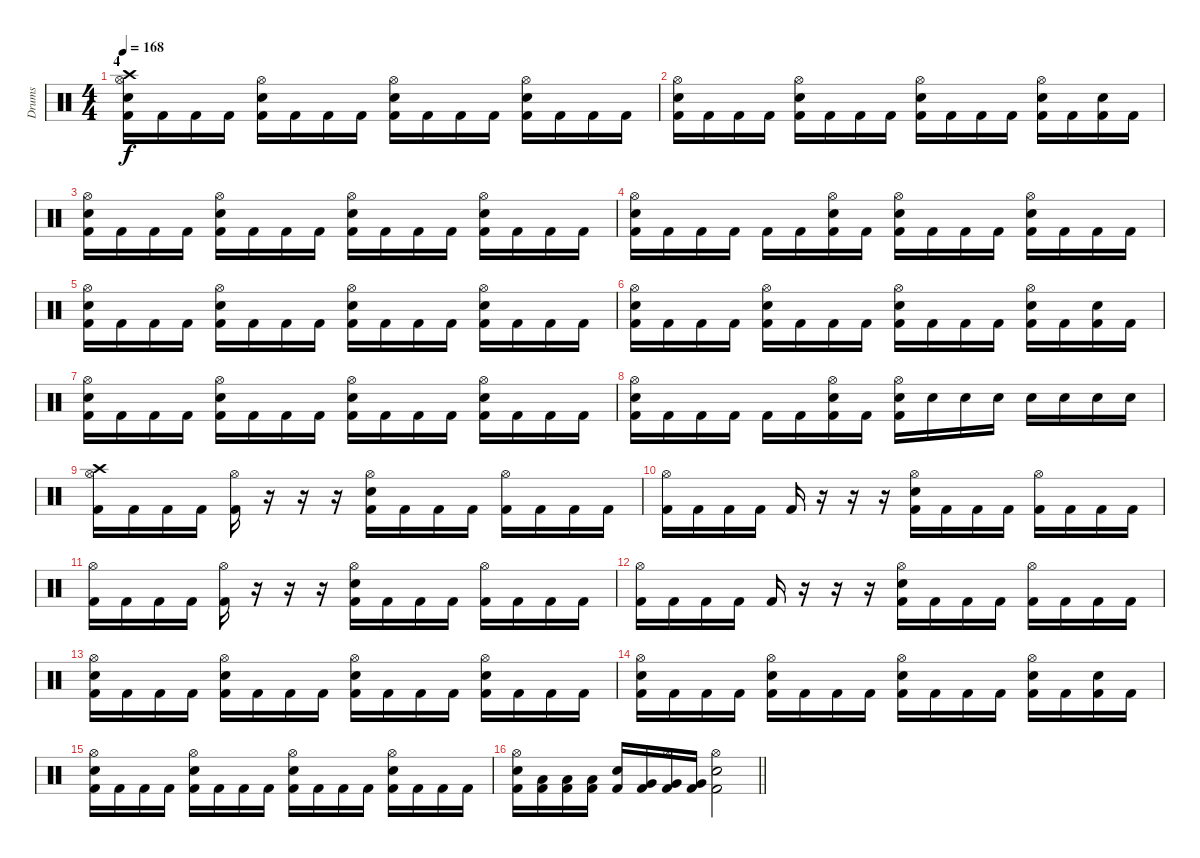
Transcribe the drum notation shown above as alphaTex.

\track ("Drums" "Drums") {instrument percussion}
\staff {score}
\articulation defaults
\ts (4 4)
\section ("" "4")
\tempo 168
\clef neutral
\ks c
("Crash high (hit)" "Electric Snare (hit)" "Kick (hit) 2" "Hi-Hat (open)").16{dy f} "Kick (hit) 2".16 "Kick (hit) 2".16 "Kick (hit) 2".16 ("Electric Snare (hit)" "Kick (hit) 2" "Hi-Hat (open)").16 "Kick (hit) 2".16 "Kick (hit) 2".16 "Kick (hit) 2".16 ("Electric Snare (hit)" "Kick (hit) 2" "Hi-Hat (open)").16 "Kick (hit) 2".16 "Kick (hit) 2".16 "Kick (hit) 2".16 ("Electric Snare (hit)" "Kick (hit) 2" "Hi-Hat (open)").16 "Kick (hit) 2".16 "Kick (hit) 2".16 "Kick (hit) 2".16 |
("Electric Snare (hit)" "Kick (hit) 2" "Hi-Hat (open)").16 "Kick (hit) 2".16 "Kick (hit) 2".16 "Kick (hit) 2".16 ("Electric Snare (hit)" "Kick (hit) 2" "Hi-Hat (open)").16 "Kick (hit) 2".16 "Kick (hit) 2".16 "Kick (hit) 2".16 ("Electric Snare (hit)" "Kick (hit) 2" "Hi-Hat (open)").16 "Kick (hit) 2".16 "Kick (hit) 2".16 "Kick (hit) 2".16 ("Electric Snare (hit)" "Kick (hit) 2" "Hi-Hat (open)").16 "Kick (hit) 2".16 ("Electric Snare (hit)" "Kick (hit) 2").16 "Kick (hit) 2".16 |
("Electric Snare (hit)" "Kick (hit) 2" "Hi-Hat (open)").16 "Kick (hit) 2".16 "Kick (hit) 2".16 "Kick (hit) 2".16 ("Electric Snare (hit)" "Kick (hit) 2" "Hi-Hat (open)").16 "Kick (hit) 2".16 "Kick (hit) 2".16 "Kick (hit) 2".16 ("Electric Snare (hit)" "Kick (hit) 2" "Hi-Hat (open)").16 "Kick (hit) 2".16 "Kick (hit) 2".16 "Kick (hit) 2".16 ("Electric Snare (hit)" "Kick (hit) 2" "Hi-Hat (open)").16 "Kick (hit) 2".16 "Kick (hit) 2".16 "Kick (hit) 2".16 |
("Electric Snare (hit)" "Kick (hit) 2" "Hi-Hat (open)").16 "Kick (hit) 2".16 "Kick (hit) 2".16 "Kick (hit) 2".16 "Kick (hit) 2".16 "Kick (hit) 2".16 ("Electric Snare (hit)" "Kick (hit) 2" "Hi-Hat (open)").16 "Kick (hit) 2".16 ("Electric Snare (hit)" "Kick (hit) 2" "Hi-Hat (open)").16 "Kick (hit) 2".16 "Kick (hit) 2".16 "Kick (hit) 2".16 ("Electric Snare (hit)" "Kick (hit) 2" "Hi-Hat (open)").16 "Kick (hit) 2".16 "Kick (hit) 2".16 "Kick (hit) 2".16 |
("Electric Snare (hit)" "Kick (hit) 2" "Hi-Hat (open)").16 "Kick (hit) 2".16 "Kick (hit) 2".16 "Kick (hit) 2".16 ("Electric Snare (hit)" "Kick (hit) 2" "Hi-Hat (open)").16 "Kick (hit) 2".16 "Kick (hit) 2".16 "Kick (hit) 2".16 ("Electric Snare (hit)" "Kick (hit) 2" "Hi-Hat (open)").16 "Kick (hit) 2".16 "Kick (hit) 2".16 "Kick (hit) 2".16 ("Electric Snare (hit)" "Kick (hit) 2" "Hi-Hat (open)").16 "Kick (hit) 2".16 "Kick (hit) 2".16 "Kick (hit) 2".16 |
("Electric Snare (hit)" "Kick (hit) 2" "Hi-Hat (open)").16 "Kick (hit) 2".16 "Kick (hit) 2".16 "Kick (hit) 2".16 ("Electric Snare (hit)" "Kick (hit) 2" "Hi-Hat (open)").16 "Kick (hit) 2".16 "Kick (hit) 2".16 "Kick (hit) 2".16 ("Electric Snare (hit)" "Kick (hit) 2" "Hi-Hat (open)").16 "Kick (hit) 2".16 "Kick (hit) 2".16 "Kick (hit) 2".16 ("Electric Snare (hit)" "Kick (hit) 2" "Hi-Hat (open)").16 "Kick (hit) 2".16 ("Electric Snare (hit)" "Kick (hit) 2").16 "Kick (hit) 2".16 |
("Electric Snare (hit)" "Kick (hit) 2" "Hi-Hat (open)").16 "Kick (hit) 2".16 "Kick (hit) 2".16 "Kick (hit) 2".16 ("Electric Snare (hit)" "Kick (hit) 2" "Hi-Hat (open)").16 "Kick (hit) 2".16 "Kick (hit) 2".16 "Kick (hit) 2".16 ("Electric Snare (hit)" "Kick (hit) 2" "Hi-Hat (open)").16 "Kick (hit) 2".16 "Kick (hit) 2".16 "Kick (hit) 2".16 ("Electric Snare (hit)" "Kick (hit) 2" "Hi-Hat (open)").16 "Kick (hit) 2".16 "Kick (hit) 2".16 "Kick (hit) 2".16 |
("Electric Snare (hit)" "Kick (hit) 2" "Hi-Hat (open)").16 "Kick (hit) 2".16 "Kick (hit) 2".16 "Kick (hit) 2".16 "Kick (hit) 2".16 "Kick (hit) 2".16 ("Electric Snare (hit)" "Kick (hit) 2" "Hi-Hat (open)").16 "Kick (hit) 2".16 ("Electric Snare (hit)" "Kick (hit) 2" "Hi-Hat (open)").16 "Electric Snare (hit)".16 "Electric Snare (hit)".16 "Electric Snare (hit)".16 "Electric Snare (hit)".16 "Electric Snare (hit)".16 "Electric Snare (hit)".16 "Electric Snare (hit)".16 |
("Crash high (hit)" "Kick (hit) 2" "Hi-Hat (open)").16 "Kick (hit) 2".16 "Kick (hit) 2".16 "Kick (hit) 2".16 ("Kick (hit) 2" "Hi-Hat (open)").16 r.16 r.16 r.16 ("Electric Snare (hit)" "Kick (hit) 2" "Hi-Hat (open)").16 "Kick (hit) 2".16 "Kick (hit) 2".16 "Kick (hit) 2".16 ("Kick (hit) 2" "Hi-Hat (open)").16 "Kick (hit) 2".16 "Kick (hit) 2".16 "Kick (hit) 2".16 |
("Kick (hit) 2" "Hi-Hat (open)").16 "Kick (hit) 2".16 "Kick (hit) 2".16 "Kick (hit) 2".16 "Kick (hit) 2".16 r.16 r.16 r.16 ("Electric Snare (hit)" "Kick (hit) 2" "Hi-Hat (open)").16 "Kick (hit) 2".16 "Kick (hit) 2".16 "Kick (hit) 2".16 ("Kick (hit) 2" "Hi-Hat (open)").16 "Kick (hit) 2".16 "Kick (hit) 2".16 "Kick (hit) 2".16 |
("Kick (hit) 2" "Hi-Hat (open)").16 "Kick (hit) 2".16 "Kick (hit) 2".16 "Kick (hit) 2".16 ("Kick (hit) 2" "Hi-Hat (open)").16 r.16 r.16 r.16 ("Electric Snare (hit)" "Kick (hit) 2" "Hi-Hat (open)").16 "Kick (hit) 2".16 "Kick (hit) 2".16 "Kick (hit) 2".16 ("Kick (hit) 2" "Hi-Hat (open)").16 "Kick (hit) 2".16 "Kick (hit) 2".16 "Kick (hit) 2".16 |
("Kick (hit) 2" "Hi-Hat (open)").16 "Kick (hit) 2".16 "Kick (hit) 2".16 "Kick (hit) 2".16 "Kick (hit) 2".16 r.16 r.16 r.16 ("Electric Snare (hit)" "Kick (hit) 2" "Hi-Hat (open)").16 "Kick (hit) 2".16 "Kick (hit) 2".16 "Kick (hit) 2".16 ("Kick (hit) 2" "Hi-Hat (open)").16 "Kick (hit) 2".16 "Kick (hit) 2".16 "Kick (hit) 2".16 |
("Electric Snare (hit)" "Kick (hit) 2" "Hi-Hat (open)").16 "Kick (hit) 2".16 "Kick (hit) 2".16 "Kick (hit) 2".16 ("Electric Snare (hit)" "Kick (hit) 2" "Hi-Hat (open)").16 "Kick (hit) 2".16 "Kick (hit) 2".16 "Kick (hit) 2".16 ("Electric Snare (hit)" "Kick (hit) 2" "Hi-Hat (open)").16 "Kick (hit) 2".16 "Kick (hit) 2".16 "Kick (hit) 2".16 ("Electric Snare (hit)" "Kick (hit) 2" "Hi-Hat (open)").16 "Kick (hit) 2".16 "Kick (hit) 2".16 "Kick (hit) 2".16 |
("Electric Snare (hit)" "Kick (hit) 2" "Hi-Hat (open)").16 "Kick (hit) 2".16 "Kick (hit) 2".16 "Kick (hit) 2".16 ("Electric Snare (hit)" "Kick (hit) 2" "Hi-Hat (open)").16 "Kick (hit) 2".16 "Kick (hit) 2".16 "Kick (hit) 2".16 ("Electric Snare (hit)" "Kick (hit) 2" "Hi-Hat (open)").16 "Kick (hit) 2".16 "Kick (hit) 2".16 "Kick (hit) 2".16 ("Electric Snare (hit)" "Kick (hit) 2" "Hi-Hat (open)").16 "Kick (hit) 2".16 ("Electric Snare (hit)" "Kick (hit) 2").16 "Kick (hit) 2".16 |
("Electric Snare (hit)" "Kick (hit) 2" "Hi-Hat (open)").16 "Kick (hit) 2".16 "Kick (hit) 2".16 "Kick (hit) 2".16 ("Electric Snare (hit)" "Kick (hit) 2" "Hi-Hat (open)").16 "Kick (hit) 2".16 "Kick (hit) 2".16 "Kick (hit) 2".16 ("Electric Snare (hit)" "Kick (hit) 2" "Hi-Hat (open)").16 "Kick (hit) 2".16 "Kick (hit) 2".16 "Kick (hit) 2".16 ("Electric Snare (hit)" "Kick (hit) 2" "Hi-Hat (open)").16 "Kick (hit) 2".16 "Kick (hit) 2".16 "Kick (hit) 2".16 |
\barLineRight lightlight
("Electric Snare (hit)" "Kick (hit) 2" "Hi-Hat (open)").16 ("Low Tom (hit)" "Kick (hit) 2").16 ("Low Tom (hit)" "Kick (hit) 2").16 ("Low Tom (hit)" "Kick (hit) 2").16 ("Electric Snare (hit)" "Kick (hit) 2").16 ("Very Low Tom (hit)" "Kick (hit) 2").16 ("Very Low Tom (hit)" "Kick (hit) 2" "Hi-Hat (open)").16 ("Very Low Tom (hit)" "Kick (hit) 2").16 ("Electric Snare (hit)" "Kick (hit) 2" "Hi-Hat (open)").2
